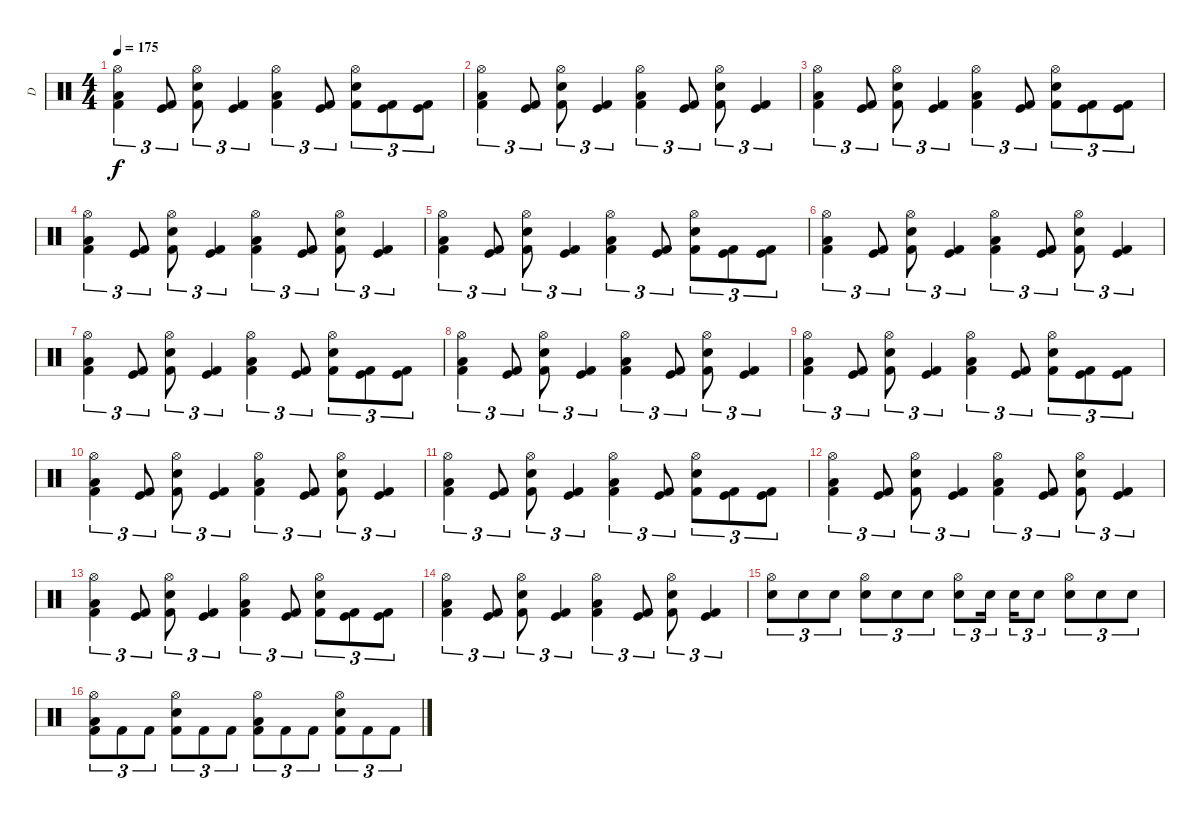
\track ("D" "D") {instrument percussion}
\staff {score}
\articulation defaults
\ts (4 4)
\tempo 175
\clef neutral
\ks c
("Hi-Hat (open)" "Low Floor Tom (hit)" "Kick (hit) 2").4{tu (3 2) dy f} ("Kick (hit)" "Kick (hit) 2").8{tu (3 2)} ("Hi-Hat (open)" "Electric Snare (hit)" "Kick (hit) 2").8{tu (3 2)} ("Kick (hit)" "Kick (hit) 2").4{tu (3 2)} ("Hi-Hat (open)" "Low Floor Tom (hit)" "Kick (hit) 2").4{tu (3 2)} ("Kick (hit)" "Kick (hit) 2").8{tu (3 2)} ("Hi-Hat (open)" "Snare (hit) 2" "Kick (hit) 2").8{tu (3 2)} ("Kick (hit)" "Kick (hit) 2").8{tu (3 2)} ("Kick (hit)" "Kick (hit) 2").8{tu (3 2)} |
("Hi-Hat (open)" "Low Floor Tom (hit)" "Kick (hit) 2").4{tu (3 2)} ("Kick (hit)" "Kick (hit) 2").8{tu (3 2)} ("Hi-Hat (open)" "Electric Snare (hit)" "Kick (hit) 2").8{tu (3 2)} ("Kick (hit)" "Kick (hit) 2").4{tu (3 2)} ("Hi-Hat (open)" "Low Floor Tom (hit)" "Kick (hit) 2").4{tu (3 2)} ("Kick (hit)" "Kick (hit) 2").8{tu (3 2)} ("Hi-Hat (open)" "Electric Snare (hit)" "Kick (hit) 2").8{tu (3 2)} ("Kick (hit)" "Kick (hit) 2").4{tu (3 2)} |
("Hi-Hat (open)" "Low Floor Tom (hit)" "Kick (hit) 2").4{tu (3 2)} ("Kick (hit)" "Kick (hit) 2").8{tu (3 2)} ("Hi-Hat (open)" "Electric Snare (hit)" "Kick (hit) 2").8{tu (3 2)} ("Kick (hit)" "Kick (hit) 2").4{tu (3 2)} ("Hi-Hat (open)" "Low Floor Tom (hit)" "Kick (hit) 2").4{tu (3 2)} ("Kick (hit)" "Kick (hit) 2").8{tu (3 2)} ("Hi-Hat (open)" "Snare (hit) 2" "Kick (hit) 2").8{tu (3 2)} ("Kick (hit)" "Kick (hit) 2").8{tu (3 2)} ("Kick (hit)" "Kick (hit) 2").8{tu (3 2)} |
("Hi-Hat (open)" "Low Floor Tom (hit)" "Kick (hit) 2").4{tu (3 2)} ("Kick (hit)" "Kick (hit) 2").8{tu (3 2)} ("Hi-Hat (open)" "Electric Snare (hit)" "Kick (hit) 2").8{tu (3 2)} ("Kick (hit)" "Kick (hit) 2").4{tu (3 2)} ("Hi-Hat (open)" "Low Floor Tom (hit)" "Kick (hit) 2").4{tu (3 2)} ("Kick (hit)" "Kick (hit) 2").8{tu (3 2)} ("Hi-Hat (open)" "Electric Snare (hit)" "Kick (hit) 2").8{tu (3 2)} ("Kick (hit)" "Kick (hit) 2").4{tu (3 2)} |
("Hi-Hat (open)" "Low Floor Tom (hit)" "Kick (hit) 2").4{tu (3 2)} ("Kick (hit)" "Kick (hit) 2").8{tu (3 2)} ("Hi-Hat (open)" "Electric Snare (hit)" "Kick (hit) 2").8{tu (3 2)} ("Kick (hit)" "Kick (hit) 2").4{tu (3 2)} ("Hi-Hat (open)" "Low Floor Tom (hit)" "Kick (hit) 2").4{tu (3 2)} ("Kick (hit)" "Kick (hit) 2").8{tu (3 2)} ("Hi-Hat (open)" "Snare (hit) 2" "Kick (hit) 2").8{tu (3 2)} ("Kick (hit)" "Kick (hit) 2").8{tu (3 2)} ("Kick (hit)" "Kick (hit) 2").8{tu (3 2)} |
("Hi-Hat (open)" "Low Floor Tom (hit)" "Kick (hit) 2").4{tu (3 2)} ("Kick (hit)" "Kick (hit) 2").8{tu (3 2)} ("Hi-Hat (open)" "Electric Snare (hit)" "Kick (hit) 2").8{tu (3 2)} ("Kick (hit)" "Kick (hit) 2").4{tu (3 2)} ("Hi-Hat (open)" "Low Floor Tom (hit)" "Kick (hit) 2").4{tu (3 2)} ("Kick (hit)" "Kick (hit) 2").8{tu (3 2)} ("Hi-Hat (open)" "Electric Snare (hit)" "Kick (hit) 2").8{tu (3 2)} ("Kick (hit)" "Kick (hit) 2").4{tu (3 2)} |
("Hi-Hat (open)" "Low Floor Tom (hit)" "Kick (hit) 2").4{tu (3 2)} ("Kick (hit)" "Kick (hit) 2").8{tu (3 2)} ("Hi-Hat (open)" "Electric Snare (hit)" "Kick (hit) 2").8{tu (3 2)} ("Kick (hit)" "Kick (hit) 2").4{tu (3 2)} ("Hi-Hat (open)" "Low Floor Tom (hit)" "Kick (hit) 2").4{tu (3 2)} ("Kick (hit)" "Kick (hit) 2").8{tu (3 2)} ("Hi-Hat (open)" "Snare (hit) 2" "Kick (hit) 2").8{tu (3 2)} ("Kick (hit)" "Kick (hit) 2").8{tu (3 2)} ("Kick (hit)" "Kick (hit) 2").8{tu (3 2)} |
("Hi-Hat (open)" "Low Floor Tom (hit)" "Kick (hit) 2").4{tu (3 2)} ("Kick (hit)" "Kick (hit) 2").8{tu (3 2)} ("Hi-Hat (open)" "Electric Snare (hit)" "Kick (hit) 2").8{tu (3 2)} ("Kick (hit)" "Kick (hit) 2").4{tu (3 2)} ("Hi-Hat (open)" "Low Floor Tom (hit)" "Kick (hit) 2").4{tu (3 2)} ("Kick (hit)" "Kick (hit) 2").8{tu (3 2)} ("Hi-Hat (open)" "Electric Snare (hit)" "Kick (hit) 2").8{tu (3 2)} ("Kick (hit)" "Kick (hit) 2").4{tu (3 2)} |
("Hi-Hat (open)" "Low Floor Tom (hit)" "Kick (hit) 2").4{tu (3 2)} ("Kick (hit)" "Kick (hit) 2").8{tu (3 2)} ("Hi-Hat (open)" "Electric Snare (hit)" "Kick (hit) 2").8{tu (3 2)} ("Kick (hit)" "Kick (hit) 2").4{tu (3 2)} ("Hi-Hat (open)" "Low Floor Tom (hit)" "Kick (hit) 2").4{tu (3 2)} ("Kick (hit)" "Kick (hit) 2").8{tu (3 2)} ("Hi-Hat (open)" "Snare (hit) 2" "Kick (hit) 2").8{tu (3 2)} ("Kick (hit)" "Kick (hit) 2").8{tu (3 2)} ("Kick (hit)" "Kick (hit) 2").8{tu (3 2)} |
("Hi-Hat (open)" "Low Floor Tom (hit)" "Kick (hit) 2").4{tu (3 2)} ("Kick (hit)" "Kick (hit) 2").8{tu (3 2)} ("Hi-Hat (open)" "Electric Snare (hit)" "Kick (hit) 2").8{tu (3 2)} ("Kick (hit)" "Kick (hit) 2").4{tu (3 2)} ("Hi-Hat (open)" "Low Floor Tom (hit)" "Kick (hit) 2").4{tu (3 2)} ("Kick (hit)" "Kick (hit) 2").8{tu (3 2)} ("Hi-Hat (open)" "Electric Snare (hit)" "Kick (hit) 2").8{tu (3 2)} ("Kick (hit)" "Kick (hit) 2").4{tu (3 2)} |
("Hi-Hat (open)" "Low Floor Tom (hit)" "Kick (hit) 2").4{tu (3 2)} ("Kick (hit)" "Kick (hit) 2").8{tu (3 2)} ("Hi-Hat (open)" "Electric Snare (hit)" "Kick (hit) 2").8{tu (3 2)} ("Kick (hit)" "Kick (hit) 2").4{tu (3 2)} ("Hi-Hat (open)" "Low Floor Tom (hit)" "Kick (hit) 2").4{tu (3 2)} ("Kick (hit)" "Kick (hit) 2").8{tu (3 2)} ("Hi-Hat (open)" "Snare (hit) 2" "Kick (hit) 2").8{tu (3 2)} ("Kick (hit)" "Kick (hit) 2").8{tu (3 2)} ("Kick (hit)" "Kick (hit) 2").8{tu (3 2)} |
("Hi-Hat (open)" "Low Floor Tom (hit)" "Kick (hit) 2").4{tu (3 2)} ("Kick (hit)" "Kick (hit) 2").8{tu (3 2)} ("Hi-Hat (open)" "Electric Snare (hit)" "Kick (hit) 2").8{tu (3 2)} ("Kick (hit)" "Kick (hit) 2").4{tu (3 2)} ("Hi-Hat (open)" "Low Floor Tom (hit)" "Kick (hit) 2").4{tu (3 2)} ("Kick (hit)" "Kick (hit) 2").8{tu (3 2)} ("Hi-Hat (open)" "Electric Snare (hit)" "Kick (hit) 2").8{tu (3 2)} ("Kick (hit)" "Kick (hit) 2").4{tu (3 2)} |
("Hi-Hat (open)" "Low Floor Tom (hit)" "Kick (hit) 2").4{tu (3 2)} ("Kick (hit)" "Kick (hit) 2").8{tu (3 2)} ("Hi-Hat (open)" "Electric Snare (hit)" "Kick (hit) 2").8{tu (3 2)} ("Kick (hit)" "Kick (hit) 2").4{tu (3 2)} ("Hi-Hat (open)" "Low Floor Tom (hit)" "Kick (hit) 2").4{tu (3 2)} ("Kick (hit)" "Kick (hit) 2").8{tu (3 2)} ("Hi-Hat (open)" "Snare (hit) 2" "Kick (hit) 2").8{tu (3 2)} ("Kick (hit)" "Kick (hit) 2").8{tu (3 2)} ("Kick (hit)" "Kick (hit) 2").8{tu (3 2)} |
("Hi-Hat (open)" "Low Floor Tom (hit)" "Kick (hit) 2").4{tu (3 2)} ("Kick (hit)" "Kick (hit) 2").8{tu (3 2)} ("Hi-Hat (open)" "Electric Snare (hit)" "Kick (hit) 2").8{tu (3 2)} ("Kick (hit)" "Kick (hit) 2").4{tu (3 2)} ("Hi-Hat (open)" "Low Floor Tom (hit)" "Kick (hit) 2").4{tu (3 2)} ("Kick (hit)" "Kick (hit) 2").8{tu (3 2)} ("Hi-Hat (open)" "Electric Snare (hit)" "Kick (hit) 2").8{tu (3 2)} ("Kick (hit)" "Kick (hit) 2").4{tu (3 2)} |
("Hi-Hat (open)" "Electric Snare (hit)").8{tu (3 2)} "Electric Snare (hit)".8{tu (3 2)} "Electric Snare (hit)".8{tu (3 2)} ("Hi-Hat (open)" "Electric Snare (hit)").8{tu (3 2)} "Electric Snare (hit)".8{tu (3 2)} "Electric Snare (hit)".8{tu (3 2)} ("Hi-Hat (open)" "Electric Snare (hit)").8{tu (3 2)} "Electric Snare (hit)".16{tu (3 2)} "Electric Snare (hit)".16{tu (3 2)} "Electric Snare (hit)".8{tu (3 2)} ("Hi-Hat (open)" "Electric Snare (hit)").8{tu (3 2)} "Electric Snare (hit)".8{tu (3 2)} "Electric Snare (hit)".8{tu (3 2)} |
("Hi-Hat (open)" "Low Floor Tom (hit)" "Kick (hit) 2").8{tu (3 2)} "Kick (hit) 2".8{tu (3 2)} "Kick (hit) 2".8{tu (3 2)} ("Hi-Hat (open)" "Electric Snare (hit)" "Kick (hit) 2").8{tu (3 2)} "Kick (hit) 2".8{tu (3 2)} "Kick (hit) 2".8{tu (3 2)} ("Hi-Hat (open)" "Low Floor Tom (hit)" "Kick (hit) 2").8{tu (3 2)} "Kick (hit) 2".8{tu (3 2)} "Kick (hit) 2".8{tu (3 2)} ("Hi-Hat (open)" "Electric Snare (hit)" "Kick (hit) 2").8{tu (3 2)} "Kick (hit) 2".8{tu (3 2)} "Kick (hit) 2".8{tu (3 2)}
